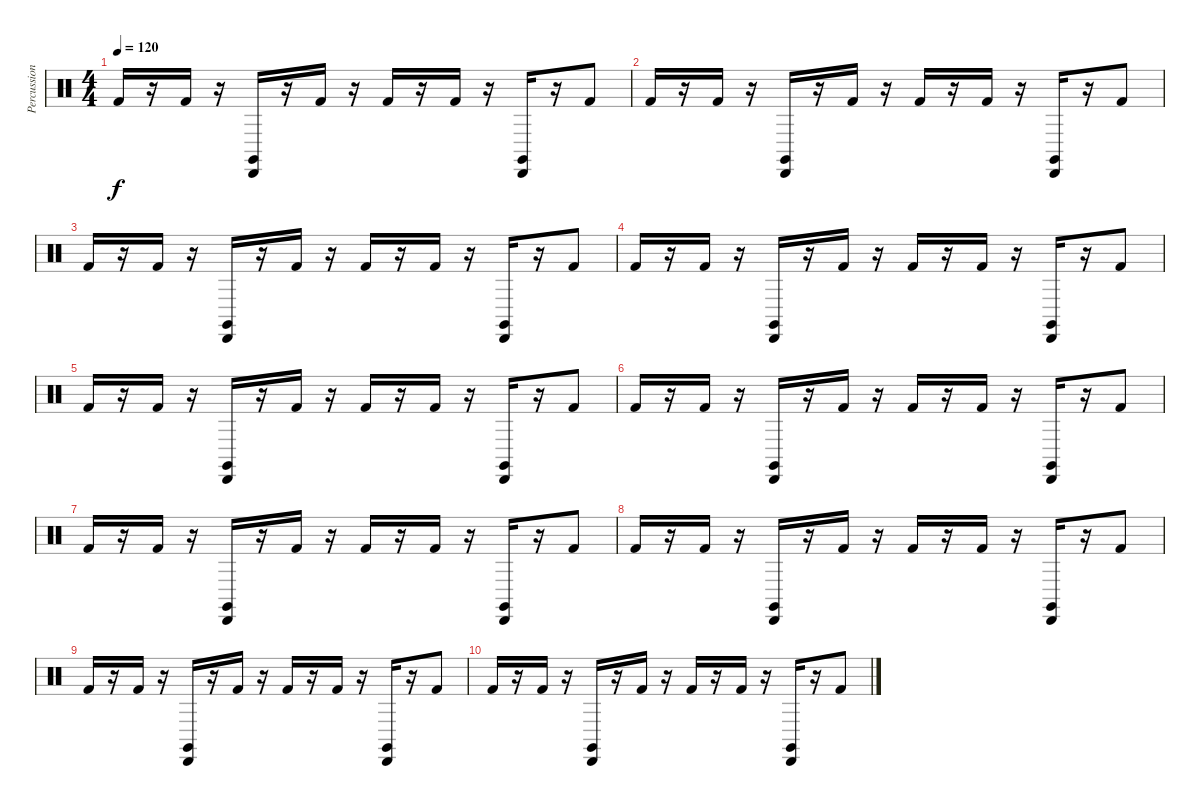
\track ("Percussion" "Percussion") {instrument percussion}
\staff {score}
\articulation defaults
\ts (4 4)
\tempo 120
\clef neutral
\ks c "Kick (hit) 2".16{dy f}
r.16 "Kick (hit) 2".16 r.16 ("Cabasa (hit)" "Claves (hit)").16 r.16 "Kick (hit) 2".16 r.16 "Kick (hit) 2".16 r.16 "Kick (hit) 2".16 r.16 ("Cabasa (hit)" "Claves (hit)").16 r.16 "Kick (hit) 2".8 |
"Kick (hit) 2".16 r.16 "Kick (hit) 2".16 r.16 ("Cabasa (hit)" "Claves (hit)").16 r.16 "Kick (hit) 2".16 r.16 "Kick (hit) 2".16 r.16 "Kick (hit) 2".16 r.16 ("Cabasa (hit)" "Claves (hit)").16 r.16 "Kick (hit) 2".8 |
"Kick (hit) 2".16 r.16 "Kick (hit) 2".16 r.16 ("Cabasa (hit)" "Claves (hit)").16 r.16 "Kick (hit) 2".16 r.16 "Kick (hit) 2".16 r.16 "Kick (hit) 2".16 r.16 ("Cabasa (hit)" "Claves (hit)").16 r.16 "Kick (hit) 2".8 |
"Kick (hit) 2".16 r.16 "Kick (hit) 2".16 r.16 ("Cabasa (hit)" "Claves (hit)").16 r.16 "Kick (hit) 2".16 r.16 "Kick (hit) 2".16 r.16 "Kick (hit) 2".16 r.16 ("Cabasa (hit)" "Claves (hit)").16 r.16 "Kick (hit) 2".8 |
"Kick (hit) 2".16 r.16 "Kick (hit) 2".16 r.16 ("Cabasa (hit)" "Claves (hit)").16 r.16 "Kick (hit) 2".16 r.16 "Kick (hit) 2".16 r.16 "Kick (hit) 2".16 r.16 ("Cabasa (hit)" "Claves (hit)").16 r.16 "Kick (hit) 2".8 |
"Kick (hit) 2".16 r.16 "Kick (hit) 2".16 r.16 ("Cabasa (hit)" "Claves (hit)").16 r.16 "Kick (hit) 2".16 r.16 "Kick (hit) 2".16 r.16 "Kick (hit) 2".16 r.16 ("Cabasa (hit)" "Claves (hit)").16 r.16 "Kick (hit) 2".8 |
"Kick (hit) 2".16 r.16 "Kick (hit) 2".16 r.16 ("Cabasa (hit)" "Claves (hit)").16 r.16 "Kick (hit) 2".16 r.16 "Kick (hit) 2".16 r.16 "Kick (hit) 2".16 r.16 ("Cabasa (hit)" "Claves (hit)").16 r.16 "Kick (hit) 2".8 |
"Kick (hit) 2".16 r.16 "Kick (hit) 2".16 r.16 ("Cabasa (hit)" "Claves (hit)").16 r.16 "Kick (hit) 2".16 r.16 "Kick (hit) 2".16 r.16 "Kick (hit) 2".16 r.16 ("Cabasa (hit)" "Claves (hit)").16 r.16 "Kick (hit) 2".8 |
"Kick (hit) 2".16 r.16 "Kick (hit) 2".16 r.16 ("Cabasa (hit)" "Claves (hit)").16 r.16 "Kick (hit) 2".16 r.16 "Kick (hit) 2".16 r.16 "Kick (hit) 2".16 r.16 ("Cabasa (hit)" "Claves (hit)").16 r.16 "Kick (hit) 2".8 |
"Kick (hit) 2".16 r.16 "Kick (hit) 2".16 r.16 ("Cabasa (hit)" "Claves (hit)").16 r.16 "Kick (hit) 2".16 r.16 "Kick (hit) 2".16 r.16 "Kick (hit) 2".16 r.16 ("Cabasa (hit)" "Claves (hit)").16 r.16 "Kick (hit) 2".8
